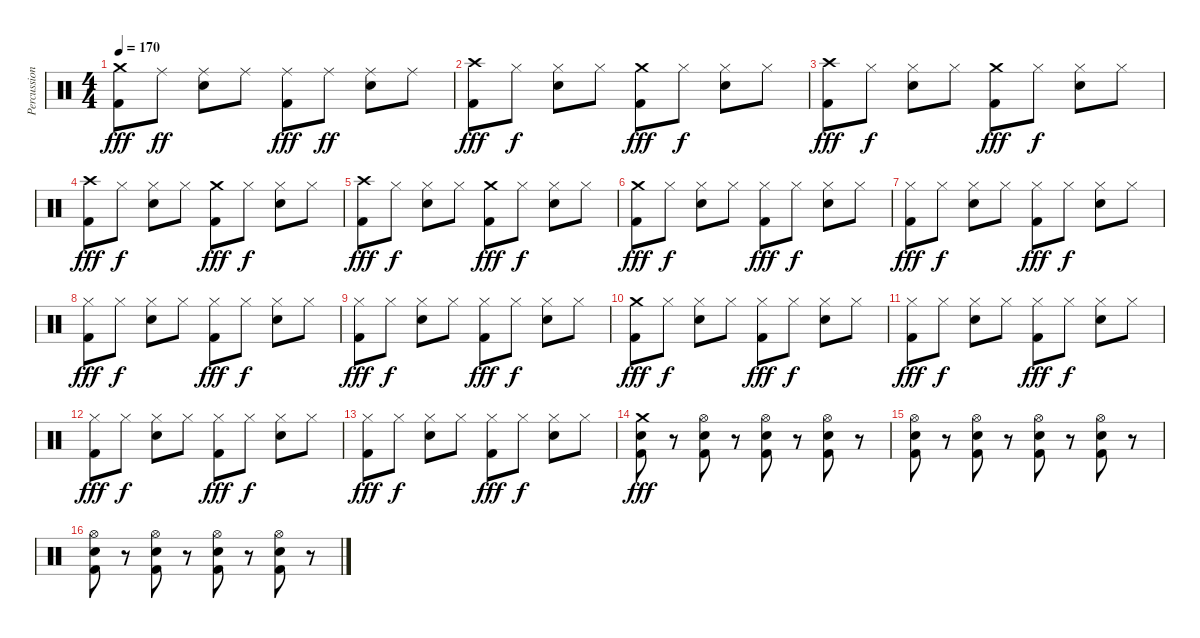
\track ("Percussion" "Percussion") {instrument percussion}
\staff {score}
\articulation defaults
\ts (4 4)
\tempo 170
\clef neutral
\ks c
("Crash medium (hit)" "Kick (hit) 2").8{dy fff} "Ride (middle)".8{dy ff} ("Ride (middle)" "Electric Snare (hit)").8 "Ride (middle)".8 ("Ride (middle)" "Kick (hit) 2").8{dy fff} "Ride (middle)".8{dy ff} ("Ride (middle)" "Electric Snare (hit)").8 "Ride (middle)".8 |
("Crash high (hit)" "Kick (hit) 2").8{dy fff} "Hi-Hat (closed)".8{dy f} ("Hi-Hat (closed)" "Electric Snare (hit)").8 "Hi-Hat (closed)".8 ("Crash medium (hit)" "Kick (hit) 2").8{dy fff} "Hi-Hat (closed)".8{dy f} ("Hi-Hat (closed)" "Electric Snare (hit)").8 "Hi-Hat (closed)".8 |
("Crash high (hit)" "Kick (hit) 2").8{dy fff} "Hi-Hat (closed)".8{dy f} ("Hi-Hat (closed)" "Electric Snare (hit)").8 "Hi-Hat (closed)".8 ("Crash medium (hit)" "Kick (hit) 2").8{dy fff} "Hi-Hat (closed)".8{dy f} ("Hi-Hat (closed)" "Electric Snare (hit)").8 "Hi-Hat (closed)".8 |
("Crash high (hit)" "Kick (hit) 2").8{dy fff} "Hi-Hat (closed)".8{dy f} ("Hi-Hat (closed)" "Electric Snare (hit)").8 "Hi-Hat (closed)".8 ("Crash medium (hit)" "Kick (hit) 2").8{dy fff} "Hi-Hat (closed)".8{dy f} ("Hi-Hat (closed)" "Electric Snare (hit)").8 "Hi-Hat (closed)".8 |
("Crash high (hit)" "Kick (hit) 2").8{dy fff} "Hi-Hat (closed)".8{dy f} ("Hi-Hat (closed)" "Electric Snare (hit)").8 "Hi-Hat (closed)".8 ("Crash medium (hit)" "Kick (hit) 2").8{dy fff} "Hi-Hat (closed)".8{dy f} ("Hi-Hat (closed)" "Electric Snare (hit)").8 "Hi-Hat (closed)".8 |
("Crash medium (hit)" "Kick (hit) 2").8{dy fff} "Hi-Hat (closed)".8{dy f} ("Hi-Hat (closed)" "Electric Snare (hit)").8 "Hi-Hat (closed)".8 ("Hi-Hat (closed)" "Kick (hit) 2").8{dy fff} "Hi-Hat (closed)".8{dy f} ("Hi-Hat (closed)" "Electric Snare (hit)").8 "Hi-Hat (closed)".8 |
("Hi-Hat (closed)" "Kick (hit) 2").8{dy fff} "Hi-Hat (closed)".8{dy f} ("Hi-Hat (closed)" "Electric Snare (hit)").8 "Hi-Hat (closed)".8 ("Hi-Hat (closed)" "Kick (hit) 2").8{dy fff} "Hi-Hat (closed)".8{dy f} ("Hi-Hat (closed)" "Electric Snare (hit)").8 "Hi-Hat (closed)".8 |
("Hi-Hat (closed)" "Kick (hit) 2").8{dy fff} "Hi-Hat (closed)".8{dy f} ("Hi-Hat (closed)" "Electric Snare (hit)").8 "Hi-Hat (closed)".8 ("Hi-Hat (closed)" "Kick (hit) 2").8{dy fff} "Hi-Hat (closed)".8{dy f} ("Hi-Hat (closed)" "Electric Snare (hit)").8 "Hi-Hat (closed)".8 |
("Hi-Hat (closed)" "Kick (hit) 2").8{dy fff} "Hi-Hat (closed)".8{dy f} ("Hi-Hat (closed)" "Electric Snare (hit)").8 "Hi-Hat (closed)".8 ("Hi-Hat (closed)" "Kick (hit) 2").8{dy fff} "Hi-Hat (closed)".8{dy f} ("Hi-Hat (closed)" "Electric Snare (hit)").8 "Hi-Hat (closed)".8 |
("Crash medium (hit)" "Kick (hit) 2").8{dy fff} "Hi-Hat (closed)".8{dy f} ("Hi-Hat (closed)" "Electric Snare (hit)").8 "Hi-Hat (closed)".8 ("Hi-Hat (closed)" "Kick (hit) 2").8{dy fff} "Hi-Hat (closed)".8{dy f} ("Hi-Hat (closed)" "Electric Snare (hit)").8 "Hi-Hat (closed)".8 |
("Hi-Hat (closed)" "Kick (hit) 2").8{dy fff} "Hi-Hat (closed)".8{dy f} ("Hi-Hat (closed)" "Electric Snare (hit)").8 "Hi-Hat (closed)".8 ("Hi-Hat (closed)" "Kick (hit) 2").8{dy fff} "Hi-Hat (closed)".8{dy f} ("Hi-Hat (closed)" "Electric Snare (hit)").8 "Hi-Hat (closed)".8 |
("Hi-Hat (closed)" "Kick (hit) 2").8{dy fff} "Hi-Hat (closed)".8{dy f} ("Hi-Hat (closed)" "Electric Snare (hit)").8 "Hi-Hat (closed)".8 ("Hi-Hat (closed)" "Kick (hit) 2").8{dy fff} "Hi-Hat (closed)".8{dy f} ("Hi-Hat (closed)" "Electric Snare (hit)").8 "Hi-Hat (closed)".8 |
("Hi-Hat (closed)" "Kick (hit) 2").8{dy fff} "Hi-Hat (closed)".8{dy f} ("Hi-Hat (closed)" "Electric Snare (hit)").8 "Hi-Hat (closed)".8 ("Hi-Hat (closed)" "Kick (hit) 2").8{dy fff} "Hi-Hat (closed)".8{dy f} ("Hi-Hat (closed)" "Electric Snare (hit)").8 "Hi-Hat (closed)".8 |
("Crash medium (hit)" "Electric Snare (hit)" "Kick (hit) 2").8{dy fff} r.8 ("Hi-Hat (open)" "Electric Snare (hit)" "Kick (hit) 2").8 r.8 ("Hi-Hat (open)" "Electric Snare (hit)" "Kick (hit) 2").8 r.8 ("Hi-Hat (open)" "Electric Snare (hit)" "Kick (hit) 2").8 r.8 |
("Hi-Hat (open)" "Electric Snare (hit)" "Kick (hit) 2").8 r.8 ("Hi-Hat (open)" "Electric Snare (hit)" "Kick (hit) 2").8 r.8 ("Hi-Hat (open)" "Electric Snare (hit)" "Kick (hit) 2").8 r.8 ("Hi-Hat (open)" "Electric Snare (hit)" "Kick (hit) 2").8 r.8 |
("Hi-Hat (open)" "Electric Snare (hit)" "Kick (hit) 2").8 r.8 ("Hi-Hat (open)" "Electric Snare (hit)" "Kick (hit) 2").8 r.8 ("Hi-Hat (open)" "Electric Snare (hit)" "Kick (hit) 2").8 r.8 ("Hi-Hat (open)" "Electric Snare (hit)" "Kick (hit) 2").8 r.8
